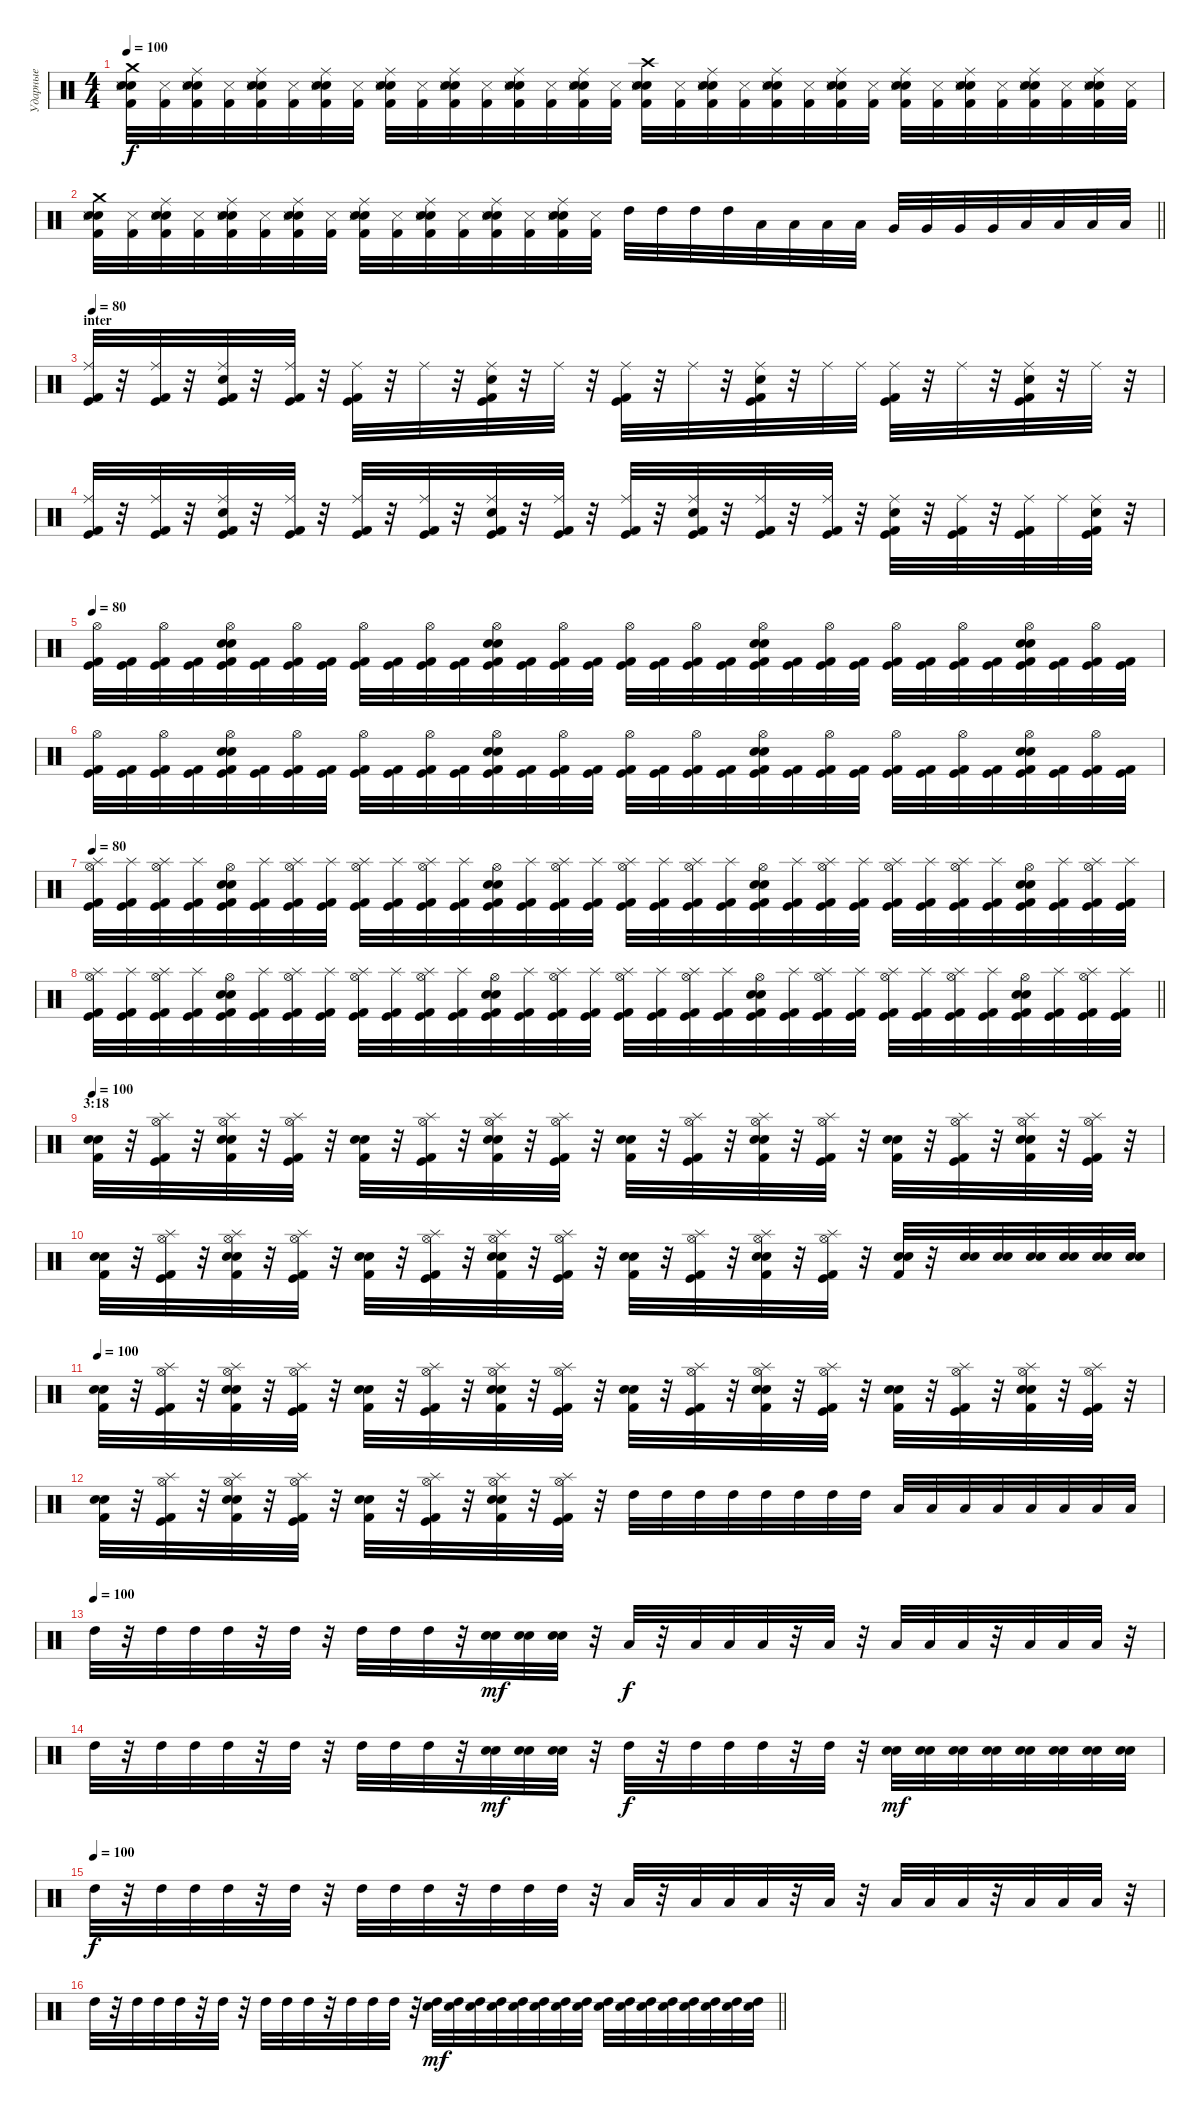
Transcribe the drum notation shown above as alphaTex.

\track ("Ударные" "Ударные") {instrument percussion}
\staff {score}
\articulation defaults
\ts (4 4)
\tempo 100
\clef neutral
\ks c
("Electric Snare (hit)" "Snare (hit) 2" "Crash medium (hit)" "Metronome (hit)" "Kick (hit) 2").32{dy f} ("Metronome (hit)" "Kick (hit) 2").32 ("Ride (middle)" "Electric Snare (hit)" "Snare (hit) 2" "Metronome (hit)" "Kick (hit) 2").32 ("Metronome (hit)" "Kick (hit) 2").32 ("Ride (middle)" "Electric Snare (hit)" "Snare (hit) 2" "Metronome (hit)" "Kick (hit) 2").32 ("Metronome (hit)" "Kick (hit) 2").32 ("Ride (middle)" "Electric Snare (hit)" "Snare (hit) 2" "Metronome (hit)" "Kick (hit) 2").32 ("Metronome (hit)" "Kick (hit) 2").32 ("Ride (middle)" "Electric Snare (hit)" "Snare (hit) 2" "Metronome (hit)" "Kick (hit) 2").32 ("Metronome (hit)" "Kick (hit) 2").32 ("Ride (middle)" "Electric Snare (hit)" "Snare (hit) 2" "Metronome (hit)" "Kick (hit) 2").32 ("Metronome (hit)" "Kick (hit) 2").32 ("Ride (middle)" "Electric Snare (hit)" "Snare (hit) 2" "Metronome (hit)" "Kick (hit) 2").32 ("Metronome (hit)" "Kick (hit) 2").32 ("Ride (middle)" "Electric Snare (hit)" "Snare (hit) 2" "Metronome (hit)" "Kick (hit) 2").32 ("Metronome (hit)" "Kick (hit) 2").32 ("Electric Snare (hit)" "Snare (hit) 2" "Crash high (hit)" "Metronome (hit)" "Kick (hit) 2").32 ("Metronome (hit)" "Kick (hit) 2").32 ("Ride (middle)" "Electric Snare (hit)" "Snare (hit) 2" "Metronome (hit)" "Kick (hit) 2").32 ("Metronome (hit)" "Kick (hit) 2").32 ("Ride (middle)" "Electric Snare (hit)" "Snare (hit) 2" "Metronome (hit)" "Kick (hit) 2").32 ("Metronome (hit)" "Kick (hit) 2").32 ("Ride (middle)" "Electric Snare (hit)" "Snare (hit) 2" "Metronome (hit)" "Kick (hit) 2").32 ("Metronome (hit)" "Kick (hit) 2").32 ("Ride (middle)" "Electric Snare (hit)" "Snare (hit) 2" "Metronome (hit)" "Kick (hit) 2").32 ("Metronome (hit)" "Kick (hit) 2").32 ("Ride (middle)" "Electric Snare (hit)" "Snare (hit) 2" "Metronome (hit)" "Kick (hit) 2").32 ("Metronome (hit)" "Kick (hit) 2").32 ("Ride (middle)" "Electric Snare (hit)" "Snare (hit) 2" "Metronome (hit)" "Kick (hit) 2").32 ("Metronome (hit)" "Kick (hit) 2").32 ("Ride (middle)" "Electric Snare (hit)" "Snare (hit) 2" "Metronome (hit)" "Kick (hit) 2").32 ("Metronome (hit)" "Kick (hit) 2").32 |
\barLineRight lightlight
("Electric Snare (hit)" "Snare (hit) 2" "Crash medium (hit)" "Metronome (hit)" "Kick (hit) 2").32 ("Metronome (hit)" "Kick (hit) 2").32 ("Ride (middle)" "Electric Snare (hit)" "Snare (hit) 2" "Metronome (hit)" "Kick (hit) 2").32 ("Metronome (hit)" "Kick (hit) 2").32 ("Ride (middle)" "Electric Snare (hit)" "Snare (hit) 2" "Metronome (hit)" "Kick (hit) 2").32 ("Metronome (hit)" "Kick (hit) 2").32 ("Ride (middle)" "Electric Snare (hit)" "Snare (hit) 2" "Metronome (hit)" "Kick (hit) 2").32 ("Metronome (hit)" "Kick (hit) 2").32 ("Ride (middle)" "Electric Snare (hit)" "Snare (hit) 2" "Metronome (hit)" "Kick (hit) 2").32 ("Metronome (hit)" "Kick (hit) 2").32 ("Ride (middle)" "Electric Snare (hit)" "Snare (hit) 2" "Metronome (hit)" "Kick (hit) 2").32 ("Metronome (hit)" "Kick (hit) 2").32 ("Ride (middle)" "Electric Snare (hit)" "Snare (hit) 2" "Metronome (hit)" "Kick (hit) 2").32 ("Metronome (hit)" "Kick (hit) 2").32 ("Ride (middle)" "Electric Snare (hit)" "Snare (hit) 2" "Metronome (hit)" "Kick (hit) 2").32 ("Metronome (hit)" "Kick (hit) 2").32 "High Tom (hit)".32 "High Tom (hit)".32 "High Tom (hit)".32 "High Tom (hit)".32 "Low Tom (hit)".32 "Low Tom (hit)".32 "Low Tom (hit)".32 "Low Tom (hit)".32 "Very Low Tom (hit)".32 "Very Low Tom (hit)".32 "Very Low Tom (hit)".32 "Very Low Tom (hit)".32 "Low Floor Tom (hit)".32 "Low Floor Tom (hit)".32 "Low Floor Tom (hit)".32 "Low Floor Tom (hit)".32 |
\section ("" "inter")
\tempo 80
("Ride (middle)" "Kick (hit) 2" "Kick (hit)").32 r.32 ("Ride (middle)" "Kick (hit) 2" "Kick (hit)").32 r.32 ("Ride (middle)" "Electric Snare (hit)" "Kick (hit) 2" "Kick (hit)").32 r.32 ("Ride (middle)" "Kick (hit) 2" "Kick (hit)").32 r.32 ("Ride (middle)" "Kick (hit) 2" "Kick (hit)").32 r.32 "Ride (middle)".32 r.32 ("Ride (middle)" "Electric Snare (hit)" "Kick (hit) 2" "Kick (hit)").32 r.32 "Ride (middle)".32 r.32 ("Ride (middle)" "Kick (hit) 2" "Kick (hit)").32 r.32 "Ride (middle)".32 r.32 ("Ride (middle)" "Electric Snare (hit)" "Kick (hit) 2" "Kick (hit)").32 r.32 "Ride (middle)".32 "Ride (middle)".32 ("Ride (middle)" "Kick (hit) 2" "Kick (hit)").32 r.32 "Ride (middle)".32 r.32 ("Ride (middle)" "Electric Snare (hit)" "Kick (hit) 2" "Kick (hit)").32 r.32 "Ride (middle)".32 r.32 |
("Ride (middle)" "Kick (hit) 2" "Kick (hit)").32 r.32 ("Ride (middle)" "Kick (hit) 2" "Kick (hit)").32 r.32 ("Ride (middle)" "Electric Snare (hit)" "Kick (hit) 2" "Kick (hit)").32 r.32 ("Ride (middle)" "Kick (hit) 2" "Kick (hit)").32 r.32 ("Ride (middle)" "Kick (hit) 2" "Kick (hit)").32 r.32 ("Ride (middle)" "Kick (hit) 2" "Kick (hit)").32 r.32 ("Ride (middle)" "Electric Snare (hit)" "Kick (hit) 2" "Kick (hit)").32 r.32 ("Ride (middle)" "Kick (hit) 2" "Kick (hit)").32 r.32 ("Ride (middle)" "Kick (hit) 2" "Kick (hit)").32 r.32 ("Ride (middle)" "Electric Snare (hit)" "Kick (hit) 2" "Kick (hit)").32 r.32 ("Ride (middle)" "Kick (hit) 2" "Kick (hit)").32 r.32 ("Ride (middle)" "Kick (hit) 2" "Kick (hit)").32 r.32 ("Ride (middle)" "Electric Snare (hit)" "Kick (hit) 2" "Kick (hit)").32 r.32 ("Ride (middle)" "Kick (hit) 2" "Kick (hit)").32 r.32 ("Ride (middle)" "Kick (hit) 2" "Kick (hit)").32 "Ride (middle)".32 ("Ride (middle)" "Electric Snare (hit)" "Kick (hit) 2" "Kick (hit)").32 r.32 |
\tempo 80
("Hi-Hat (open)" "Kick (hit)" "Kick (hit) 2").32 ("Kick (hit)" "Kick (hit) 2").32 ("Hi-Hat (open)" "Kick (hit)" "Kick (hit) 2").32 ("Kick (hit)" "Kick (hit) 2").32 ("Hi-Hat (open)" "Snare (hit) 2" "Electric Snare (hit)" "Kick (hit)" "Kick (hit) 2").32 ("Kick (hit)" "Kick (hit) 2").32 ("Hi-Hat (open)" "Kick (hit)" "Kick (hit) 2").32 ("Kick (hit)" "Kick (hit) 2").32 ("Hi-Hat (open)" "Kick (hit)" "Kick (hit) 2").32 ("Kick (hit)" "Kick (hit) 2").32 ("Hi-Hat (open)" "Kick (hit)" "Kick (hit) 2").32 ("Kick (hit)" "Kick (hit) 2").32 ("Hi-Hat (open)" "Electric Snare (hit)" "Snare (hit) 2" "Kick (hit)" "Kick (hit) 2").32 ("Kick (hit)" "Kick (hit) 2").32 ("Hi-Hat (open)" "Kick (hit)" "Kick (hit) 2").32 ("Kick (hit)" "Kick (hit) 2").32 ("Hi-Hat (open)" "Kick (hit)" "Kick (hit) 2").32 ("Kick (hit)" "Kick (hit) 2").32 ("Hi-Hat (open)" "Kick (hit)" "Kick (hit) 2").32 ("Kick (hit)" "Kick (hit) 2").32 ("Hi-Hat (open)" "Electric Snare (hit)" "Snare (hit) 2" "Kick (hit)" "Kick (hit) 2").32 ("Kick (hit)" "Kick (hit) 2").32 ("Hi-Hat (open)" "Kick (hit)" "Kick (hit) 2").32 ("Kick (hit)" "Kick (hit) 2").32 ("Hi-Hat (open)" "Kick (hit)" "Kick (hit) 2").32 ("Kick (hit)" "Kick (hit) 2").32 ("Hi-Hat (open)" "Kick (hit)" "Kick (hit) 2").32 ("Kick (hit)" "Kick (hit) 2").32 ("Hi-Hat (open)" "Electric Snare (hit)" "Snare (hit) 2" "Kick (hit)" "Kick (hit) 2").32 ("Kick (hit)" "Kick (hit) 2").32 ("Hi-Hat (open)" "Kick (hit)" "Kick (hit) 2").32 ("Kick (hit)" "Kick (hit) 2").32 |
("Hi-Hat (open)" "Kick (hit)" "Kick (hit) 2").32 ("Kick (hit)" "Kick (hit) 2").32 ("Hi-Hat (open)" "Kick (hit)" "Kick (hit) 2").32 ("Kick (hit)" "Kick (hit) 2").32 ("Hi-Hat (open)" "Snare (hit) 2" "Electric Snare (hit)" "Kick (hit)" "Kick (hit) 2").32 ("Kick (hit)" "Kick (hit) 2").32 ("Hi-Hat (open)" "Kick (hit)" "Kick (hit) 2").32 ("Kick (hit)" "Kick (hit) 2").32 ("Hi-Hat (open)" "Kick (hit)" "Kick (hit) 2").32 ("Kick (hit)" "Kick (hit) 2").32 ("Hi-Hat (open)" "Kick (hit)" "Kick (hit) 2").32 ("Kick (hit)" "Kick (hit) 2").32 ("Hi-Hat (open)" "Electric Snare (hit)" "Snare (hit) 2" "Kick (hit)" "Kick (hit) 2").32 ("Kick (hit)" "Kick (hit) 2").32 ("Hi-Hat (open)" "Kick (hit)" "Kick (hit) 2").32 ("Kick (hit)" "Kick (hit) 2").32 ("Hi-Hat (open)" "Kick (hit)" "Kick (hit) 2").32 ("Kick (hit)" "Kick (hit) 2").32 ("Hi-Hat (open)" "Kick (hit)" "Kick (hit) 2").32 ("Kick (hit)" "Kick (hit) 2").32 ("Hi-Hat (open)" "Electric Snare (hit)" "Snare (hit) 2" "Kick (hit)" "Kick (hit) 2").32 ("Kick (hit)" "Kick (hit) 2").32 ("Hi-Hat (open)" "Kick (hit)" "Kick (hit) 2").32 ("Kick (hit)" "Kick (hit) 2").32 ("Hi-Hat (open)" "Kick (hit)" "Kick (hit) 2").32 ("Kick (hit)" "Kick (hit) 2").32 ("Hi-Hat (open)" "Kick (hit)" "Kick (hit) 2").32 ("Kick (hit)" "Kick (hit) 2").32 ("Hi-Hat (open)" "Electric Snare (hit)" "Snare (hit) 2" "Kick (hit)" "Kick (hit) 2").32 ("Kick (hit)" "Kick (hit) 2").32 ("Hi-Hat (open)" "Kick (hit)" "Kick (hit) 2").32 ("Kick (hit)" "Kick (hit) 2").32 |
\tempo 80
("Hi-Hat (open)" "Splash (hit)" "Kick (hit)" "Kick (hit) 2").32 ("Splash (hit)" "Kick (hit)" "Kick (hit) 2").32 ("Hi-Hat (open)" "Splash (hit)" "Kick (hit)" "Kick (hit) 2").32 ("Splash (hit)" "Kick (hit)" "Kick (hit) 2").32 ("Hi-Hat (open)" "Snare (hit) 2" "Electric Snare (hit)" "Kick (hit)" "Kick (hit) 2").32 ("Splash (hit)" "Kick (hit)" "Kick (hit) 2").32 ("Hi-Hat (open)" "Splash (hit)" "Kick (hit)" "Kick (hit) 2").32 ("Splash (hit)" "Kick (hit)" "Kick (hit) 2").32 ("Hi-Hat (open)" "Splash (hit)" "Kick (hit)" "Kick (hit) 2").32 ("Splash (hit)" "Kick (hit)" "Kick (hit) 2").32 ("Hi-Hat (open)" "Splash (hit)" "Kick (hit)" "Kick (hit) 2").32 ("Splash (hit)" "Kick (hit)" "Kick (hit) 2").32 ("Hi-Hat (open)" "Electric Snare (hit)" "Snare (hit) 2" "Kick (hit)" "Kick (hit) 2").32 ("Splash (hit)" "Kick (hit)" "Kick (hit) 2").32 ("Hi-Hat (open)" "Splash (hit)" "Kick (hit)" "Kick (hit) 2").32 ("Splash (hit)" "Kick (hit)" "Kick (hit) 2").32 ("Hi-Hat (open)" "Splash (hit)" "Kick (hit)" "Kick (hit) 2").32 ("Splash (hit)" "Kick (hit)" "Kick (hit) 2").32 ("Hi-Hat (open)" "Splash (hit)" "Kick (hit)" "Kick (hit) 2").32 ("Splash (hit)" "Kick (hit)" "Kick (hit) 2").32 ("Hi-Hat (open)" "Electric Snare (hit)" "Snare (hit) 2" "Kick (hit)" "Kick (hit) 2").32 ("Splash (hit)" "Kick (hit)" "Kick (hit) 2").32 ("Hi-Hat (open)" "Splash (hit)" "Kick (hit)" "Kick (hit) 2").32 ("Splash (hit)" "Kick (hit)" "Kick (hit) 2").32 ("Hi-Hat (open)" "Splash (hit)" "Kick (hit)" "Kick (hit) 2").32 ("Splash (hit)" "Kick (hit)" "Kick (hit) 2").32 ("Hi-Hat (open)" "Splash (hit)" "Kick (hit)" "Kick (hit) 2").32 ("Splash (hit)" "Kick (hit)" "Kick (hit) 2").32 ("Hi-Hat (open)" "Electric Snare (hit)" "Snare (hit) 2" "Kick (hit)" "Kick (hit) 2").32 ("Splash (hit)" "Kick (hit)" "Kick (hit) 2").32 ("Hi-Hat (open)" "Splash (hit)" "Kick (hit)" "Kick (hit) 2").32 ("Splash (hit)" "Kick (hit)" "Kick (hit) 2").32 |
\barLineRight lightlight
("Hi-Hat (open)" "Splash (hit)" "Kick (hit)" "Kick (hit) 2").32 ("Splash (hit)" "Kick (hit)" "Kick (hit) 2").32 ("Hi-Hat (open)" "Splash (hit)" "Kick (hit)" "Kick (hit) 2").32 ("Splash (hit)" "Kick (hit)" "Kick (hit) 2").32 ("Hi-Hat (open)" "Snare (hit) 2" "Electric Snare (hit)" "Kick (hit)" "Kick (hit) 2").32 ("Splash (hit)" "Kick (hit)" "Kick (hit) 2").32 ("Hi-Hat (open)" "Splash (hit)" "Kick (hit)" "Kick (hit) 2").32 ("Splash (hit)" "Kick (hit)" "Kick (hit) 2").32 ("Hi-Hat (open)" "Splash (hit)" "Kick (hit)" "Kick (hit) 2").32 ("Splash (hit)" "Kick (hit)" "Kick (hit) 2").32 ("Hi-Hat (open)" "Splash (hit)" "Kick (hit)" "Kick (hit) 2").32 ("Splash (hit)" "Kick (hit)" "Kick (hit) 2").32 ("Hi-Hat (open)" "Electric Snare (hit)" "Snare (hit) 2" "Kick (hit)" "Kick (hit) 2").32 ("Splash (hit)" "Kick (hit)" "Kick (hit) 2").32 ("Hi-Hat (open)" "Splash (hit)" "Kick (hit)" "Kick (hit) 2").32 ("Splash (hit)" "Kick (hit)" "Kick (hit) 2").32 ("Hi-Hat (open)" "Splash (hit)" "Kick (hit)" "Kick (hit) 2").32 ("Splash (hit)" "Kick (hit)" "Kick (hit) 2").32 ("Hi-Hat (open)" "Splash (hit)" "Kick (hit)" "Kick (hit) 2").32 ("Splash (hit)" "Kick (hit)" "Kick (hit) 2").32 ("Hi-Hat (open)" "Electric Snare (hit)" "Snare (hit) 2" "Kick (hit)" "Kick (hit) 2").32 ("Splash (hit)" "Kick (hit)" "Kick (hit) 2").32 ("Hi-Hat (open)" "Splash (hit)" "Kick (hit)" "Kick (hit) 2").32 ("Splash (hit)" "Kick (hit)" "Kick (hit) 2").32 ("Hi-Hat (open)" "Splash (hit)" "Kick (hit)" "Kick (hit) 2").32 ("Splash (hit)" "Kick (hit)" "Kick (hit) 2").32 ("Hi-Hat (open)" "Splash (hit)" "Kick (hit)" "Kick (hit) 2").32 ("Splash (hit)" "Kick (hit)" "Kick (hit) 2").32 ("Hi-Hat (open)" "Electric Snare (hit)" "Snare (hit) 2" "Kick (hit)" "Kick (hit) 2").32 ("Splash (hit)" "Kick (hit)" "Kick (hit) 2").32 ("Hi-Hat (open)" "Splash (hit)" "Kick (hit)" "Kick (hit) 2").32 ("Splash (hit)" "Kick (hit)" "Kick (hit) 2").32 |
\section ("" "3:18")
\tempo 100
("Snare (hit) 2" "Electric Snare (hit)" "Kick (hit) 2").32 r.32 ("Hi-Hat (open)" "Splash (hit)" "Kick (hit) 2" "Kick (hit)").32 r.32 ("Snare (hit) 2" "Electric Snare (hit)" "Hi-Hat (open)" "Splash (hit)" "Kick (hit) 2").32 r.32 ("Hi-Hat (open)" "Splash (hit)" "Kick (hit) 2" "Kick (hit)").32 r.32 ("Snare (hit) 2" "Electric Snare (hit)" "Kick (hit) 2").32 r.32 ("Hi-Hat (open)" "Splash (hit)" "Kick (hit) 2" "Kick (hit)").32 r.32 ("Snare (hit) 2" "Electric Snare (hit)" "Hi-Hat (open)" "Splash (hit)" "Kick (hit) 2").32 r.32 ("Hi-Hat (open)" "Splash (hit)" "Kick (hit) 2" "Kick (hit)").32 r.32 ("Snare (hit) 2" "Electric Snare (hit)" "Kick (hit) 2").32 r.32 ("Hi-Hat (open)" "Splash (hit)" "Kick (hit) 2" "Kick (hit)").32 r.32 ("Snare (hit) 2" "Electric Snare (hit)" "Hi-Hat (open)" "Splash (hit)" "Kick (hit) 2").32 r.32 ("Hi-Hat (open)" "Splash (hit)" "Kick (hit) 2" "Kick (hit)").32 r.32 ("Snare (hit) 2" "Electric Snare (hit)" "Kick (hit) 2").32 r.32 ("Hi-Hat (open)" "Splash (hit)" "Kick (hit) 2" "Kick (hit)").32 r.32 ("Snare (hit) 2" "Electric Snare (hit)" "Hi-Hat (open)" "Splash (hit)" "Kick (hit) 2").32 r.32 ("Hi-Hat (open)" "Splash (hit)" "Kick (hit) 2" "Kick (hit)").32 r.32 |
("Snare (hit) 2" "Electric Snare (hit)" "Kick (hit) 2").32 r.32 ("Hi-Hat (open)" "Splash (hit)" "Kick (hit) 2" "Kick (hit)").32 r.32 ("Snare (hit) 2" "Electric Snare (hit)" "Hi-Hat (open)" "Splash (hit)" "Kick (hit) 2").32 r.32 ("Hi-Hat (open)" "Splash (hit)" "Kick (hit) 2" "Kick (hit)").32 r.32 ("Snare (hit) 2" "Electric Snare (hit)" "Kick (hit) 2").32 r.32 ("Hi-Hat (open)" "Splash (hit)" "Kick (hit) 2" "Kick (hit)").32 r.32 ("Snare (hit) 2" "Electric Snare (hit)" "Hi-Hat (open)" "Splash (hit)" "Kick (hit) 2").32 r.32 ("Hi-Hat (open)" "Splash (hit)" "Kick (hit) 2" "Kick (hit)").32 r.32 ("Snare (hit) 2" "Electric Snare (hit)" "Kick (hit) 2").32 r.32 ("Hi-Hat (open)" "Splash (hit)" "Kick (hit) 2" "Kick (hit)").32 r.32 ("Snare (hit) 2" "Electric Snare (hit)" "Hi-Hat (open)" "Splash (hit)" "Kick (hit) 2").32 r.32 ("Hi-Hat (open)" "Splash (hit)" "Kick (hit) 2" "Kick (hit)").32 r.32 ("Snare (hit) 2" "Electric Snare (hit)" "Kick (hit) 2").32 r.32 ("Snare (hit) 2" "Electric Snare (hit)").32 ("Snare (hit) 2" "Electric Snare (hit)").32 ("Snare (hit) 2" "Electric Snare (hit)").32 ("Snare (hit) 2" "Electric Snare (hit)").32 ("Snare (hit) 2" "Electric Snare (hit)").32 ("Snare (hit) 2" "Electric Snare (hit)").32 |
\tempo 100
("Snare (hit) 2" "Electric Snare (hit)" "Kick (hit) 2").32 r.32 ("Hi-Hat (open)" "Splash (hit)" "Kick (hit) 2" "Kick (hit)").32 r.32 ("Snare (hit) 2" "Electric Snare (hit)" "Hi-Hat (open)" "Splash (hit)" "Kick (hit) 2").32 r.32 ("Hi-Hat (open)" "Splash (hit)" "Kick (hit) 2" "Kick (hit)").32 r.32 ("Snare (hit) 2" "Electric Snare (hit)" "Kick (hit) 2").32 r.32 ("Hi-Hat (open)" "Splash (hit)" "Kick (hit) 2" "Kick (hit)").32 r.32 ("Snare (hit) 2" "Electric Snare (hit)" "Hi-Hat (open)" "Splash (hit)" "Kick (hit) 2").32 r.32 ("Hi-Hat (open)" "Splash (hit)" "Kick (hit) 2" "Kick (hit)").32 r.32 ("Snare (hit) 2" "Electric Snare (hit)" "Kick (hit) 2").32 r.32 ("Hi-Hat (open)" "Splash (hit)" "Kick (hit) 2" "Kick (hit)").32 r.32 ("Snare (hit) 2" "Electric Snare (hit)" "Hi-Hat (open)" "Splash (hit)" "Kick (hit) 2").32 r.32 ("Hi-Hat (open)" "Splash (hit)" "Kick (hit) 2" "Kick (hit)").32 r.32 ("Snare (hit) 2" "Electric Snare (hit)" "Kick (hit) 2").32 r.32 ("Hi-Hat (open)" "Splash (hit)" "Kick (hit) 2" "Kick (hit)").32 r.32 ("Snare (hit) 2" "Electric Snare (hit)" "Hi-Hat (open)" "Splash (hit)" "Kick (hit) 2").32 r.32 ("Hi-Hat (open)" "Splash (hit)" "Kick (hit) 2" "Kick (hit)").32 r.32 |
("Snare (hit) 2" "Electric Snare (hit)" "Kick (hit) 2").32 r.32 ("Hi-Hat (open)" "Splash (hit)" "Kick (hit) 2" "Kick (hit)").32 r.32 ("Snare (hit) 2" "Electric Snare (hit)" "Hi-Hat (open)" "Splash (hit)" "Kick (hit) 2").32 r.32 ("Hi-Hat (open)" "Splash (hit)" "Kick (hit) 2" "Kick (hit)").32 r.32 ("Snare (hit) 2" "Electric Snare (hit)" "Kick (hit) 2").32 r.32 ("Hi-Hat (open)" "Splash (hit)" "Kick (hit) 2" "Kick (hit)").32 r.32 ("Snare (hit) 2" "Electric Snare (hit)" "Hi-Hat (open)" "Splash (hit)" "Kick (hit) 2").32 r.32 ("Hi-Hat (open)" "Splash (hit)" "Kick (hit) 2" "Kick (hit)").32 r.32 "High Tom (hit)".32 "High Tom (hit)".32 "High Tom (hit)".32 "High Tom (hit)".32 "High Tom (hit)".32 "High Tom (hit)".32 "High Tom (hit)".32 "High Tom (hit)".32 "Low Tom (hit)".32 "Low Tom (hit)".32 "Low Tom (hit)".32 "Low Tom (hit)".32 "Low Tom (hit)".32 "Low Tom (hit)".32 "Low Tom (hit)".32 "Low Tom (hit)".32 |
\tempo (100)
"High Tom (hit)".32 r.32 "High Tom (hit)".32 "High Tom (hit)".32 "High Tom (hit)".32 r.32 "High Tom (hit)".32 r.32 "High Tom (hit)".32 "High Tom (hit)".32 "High Tom (hit)".32 r.32 ("Snare (hit) 2" "Electric Snare (hit)").32{dy mf} ("Snare (hit) 2" "Electric Snare (hit)").32 ("Snare (hit) 2" "Electric Snare (hit)").32 r.32 "Low Tom (hit)".32{dy f} r.32 "Low Tom (hit)".32 "Low Tom (hit)".32 "Low Tom (hit)".32 r.32 "Low Tom (hit)".32 r.32 "Low Tom (hit)".32 "Low Tom (hit)".32 "Low Tom (hit)".32 r.32 "Low Tom (hit)".32 "Low Tom (hit)".32 "Low Tom (hit)".32 r.32 |
"High Tom (hit)".32 r.32 "High Tom (hit)".32 "High Tom (hit)".32 "High Tom (hit)".32 r.32 "High Tom (hit)".32 r.32 "High Tom (hit)".32 "High Tom (hit)".32 "High Tom (hit)".32 r.32 ("Snare (hit) 2" "Electric Snare (hit)").32{dy mf} ("Snare (hit) 2" "Electric Snare (hit)").32 ("Snare (hit) 2" "Electric Snare (hit)").32 r.32 "High Tom (hit)".32{dy f} r.32 "High Tom (hit)".32 "High Tom (hit)".32 "High Tom (hit)".32 r.32 "High Tom (hit)".32 r.32 ("Snare (hit) 2" "Electric Snare (hit)").32{dy mf} ("Snare (hit) 2" "Electric Snare (hit)").32 ("Snare (hit) 2" "Electric Snare (hit)").32 ("Snare (hit) 2" "Electric Snare (hit)").32 ("Snare (hit) 2" "Electric Snare (hit)").32 ("Snare (hit) 2" "Electric Snare (hit)").32 ("Snare (hit) 2" "Electric Snare (hit)").32 ("Snare (hit) 2" "Electric Snare (hit)").32 |
\tempo (100)
"High Tom (hit)".32{dy f} r.32 "High Tom (hit)".32 "High Tom (hit)".32 "High Tom (hit)".32 r.32 "High Tom (hit)".32 r.32 "High Tom (hit)".32 "High Tom (hit)".32 "High Tom (hit)".32 r.32 "High Tom (hit)".32 "High Tom (hit)".32 "High Tom (hit)".32 r.32 "Low Tom (hit)".32 r.32 "Low Tom (hit)".32 "Low Tom (hit)".32 "Low Tom (hit)".32 r.32 "Low Tom (hit)".32 r.32 "Low Tom (hit)".32 "Low Tom (hit)".32 "Low Tom (hit)".32 r.32 "Low Tom (hit)".32 "Low Tom (hit)".32 "Low Tom (hit)".32 r.32 |
\barLineRight lightlight "High Tom (hit)".32
r.32 "High Tom (hit)".32 "High Tom (hit)".32 "High Tom (hit)".32 r.32 "High Tom (hit)".32 r.32 "High Tom (hit)".32 "High Tom (hit)".32 "High Tom (hit)".32 r.32 "High Tom (hit)".32 "High Tom (hit)".32 "High Tom (hit)".32 r.32 ("High Tom (hit)" "Electric Snare (hit)").32{dy mf} ("High Tom (hit)" "Electric Snare (hit)").32 ("High Tom (hit)" "Electric Snare (hit)").32 ("High Tom (hit)" "Electric Snare (hit)").32 ("High Tom (hit)" "Electric Snare (hit)").32 ("High Tom (hit)" "Electric Snare (hit)").32 ("High Tom (hit)" "Electric Snare (hit)").32 ("High Tom (hit)" "Electric Snare (hit)").32 ("High Tom (hit)" "Snare (hit) 2").32 ("High Tom (hit)" "Snare (hit) 2").32 ("High Tom (hit)" "Snare (hit) 2").32 ("High Tom (hit)" "Snare (hit) 2").32 ("High Tom (hit)" "Snare (hit) 2").32 ("High Tom (hit)" "Snare (hit) 2").32 ("High Tom (hit)" "Snare (hit) 2").32 ("High Tom (hit)" "Snare (hit) 2").32
